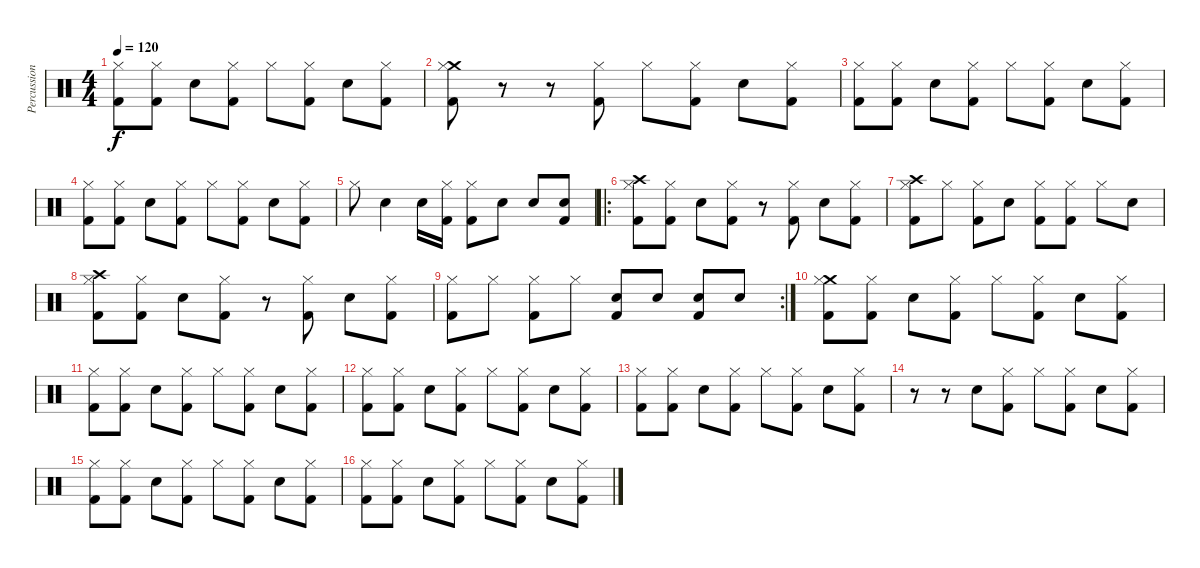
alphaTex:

\track ("Percussion" "Percussion") {instrument percussion}
\staff {score}
\articulation defaults
\ts (4 4)
\tempo 120
\clef neutral
\ks c
("Hi-Hat (closed)" "Kick (hit) 2").8{dy f} ("Hi-Hat (closed)" "Kick (hit) 2").8 "Electric Snare (hit)".8 ("Hi-Hat (closed)" "Kick (hit) 2").8 "Hi-Hat (closed)".8 ("Hi-Hat (closed)" "Kick (hit) 2").8 "Electric Snare (hit)".8 ("Hi-Hat (closed)" "Kick (hit) 2").8 |
("Crash medium (hit)" "Hi-Hat (closed)" "Kick (hit) 2").8 r.8 r.8 ("Hi-Hat (closed)" "Kick (hit) 2").8 "Hi-Hat (closed)".8 ("Hi-Hat (closed)" "Kick (hit) 2").8 "Electric Snare (hit)".8 ("Hi-Hat (closed)" "Kick (hit) 2").8 |
("Hi-Hat (closed)" "Kick (hit) 2").8 ("Hi-Hat (closed)" "Kick (hit) 2").8 "Electric Snare (hit)".8 ("Hi-Hat (closed)" "Kick (hit) 2").8 "Hi-Hat (closed)".8 ("Hi-Hat (closed)" "Kick (hit) 2").8 "Electric Snare (hit)".8 ("Hi-Hat (closed)" "Kick (hit) 2").8 |
("Hi-Hat (closed)" "Kick (hit) 2").8 ("Hi-Hat (closed)" "Kick (hit) 2").8 "Electric Snare (hit)".8 ("Hi-Hat (closed)" "Kick (hit) 2").8 "Hi-Hat (closed)".8 ("Hi-Hat (closed)" "Kick (hit) 2").8 "Electric Snare (hit)".8 ("Hi-Hat (closed)" "Kick (hit) 2").8 |
"Hi-Hat (closed)".8 "Electric Snare (hit)".4 "Electric Snare (hit)".16 ("Hi-Hat (closed)" "Kick (hit) 2").16 ("Hi-Hat (closed)" "Kick (hit) 2").8 "Electric Snare (hit)".8 "Electric Snare (hit)".8 ("Electric Snare (hit)" "Kick (hit) 2").8 |
\ro
("Crash high (hit)" "Hi-Hat (closed)" "Kick (hit) 2").8 ("Hi-Hat (closed)" "Kick (hit) 2").8 "Electric Snare (hit)".8 ("Hi-Hat (closed)" "Kick (hit) 2").8 r.8 ("Hi-Hat (closed)" "Kick (hit) 2").8 "Electric Snare (hit)".8 ("Hi-Hat (closed)" "Kick (hit) 2").8 |
("Crash high (hit)" "Hi-Hat (closed)" "Kick (hit) 2").8 "Hi-Hat (closed)".8 ("Hi-Hat (closed)" "Kick (hit) 2").8 "Electric Snare (hit)".8 ("Hi-Hat (closed)" "Kick (hit) 2").8 ("Hi-Hat (closed)" "Kick (hit) 2").8 "Hi-Hat (closed)".8 "Electric Snare (hit)".8 |
("Crash high (hit)" "Hi-Hat (closed)" "Kick (hit) 2").8 ("Hi-Hat (closed)" "Kick (hit) 2").8 "Electric Snare (hit)".8 ("Hi-Hat (closed)" "Kick (hit) 2").8 r.8 ("Hi-Hat (closed)" "Kick (hit) 2").8 "Electric Snare (hit)".8 ("Hi-Hat (closed)" "Kick (hit) 2").8 |
\rc 2
("Hi-Hat (closed)" "Kick (hit) 2").8 "Hi-Hat (closed)".8 ("Hi-Hat (closed)" "Kick (hit) 2").8 "Hi-Hat (closed)".8 ("Electric Snare (hit)" "Kick (hit) 2").8 "Electric Snare (hit)".8 ("Electric Snare (hit)" "Kick (hit) 2").8 "Electric Snare (hit)".8 |
("Crash medium (hit)" "Hi-Hat (closed)" "Kick (hit) 2").8 ("Hi-Hat (closed)" "Kick (hit) 2").8 "Electric Snare (hit)".8 ("Hi-Hat (closed)" "Kick (hit) 2").8 "Hi-Hat (closed)".8 ("Hi-Hat (closed)" "Kick (hit) 2").8 "Electric Snare (hit)".8 ("Hi-Hat (closed)" "Kick (hit) 2").8 |
("Hi-Hat (closed)" "Kick (hit) 2").8 ("Hi-Hat (closed)" "Kick (hit) 2").8 "Electric Snare (hit)".8 ("Hi-Hat (closed)" "Kick (hit) 2").8 "Hi-Hat (closed)".8 ("Hi-Hat (closed)" "Kick (hit) 2").8 "Electric Snare (hit)".8 ("Hi-Hat (closed)" "Kick (hit) 2").8 |
("Hi-Hat (closed)" "Kick (hit) 2").8 ("Hi-Hat (closed)" "Kick (hit) 2").8 "Electric Snare (hit)".8 ("Hi-Hat (closed)" "Kick (hit) 2").8 "Hi-Hat (closed)".8 ("Hi-Hat (closed)" "Kick (hit) 2").8 "Electric Snare (hit)".8 ("Hi-Hat (closed)" "Kick (hit) 2").8 |
("Hi-Hat (closed)" "Kick (hit) 2").8 ("Hi-Hat (closed)" "Kick (hit) 2").8 "Electric Snare (hit)".8 ("Hi-Hat (closed)" "Kick (hit) 2").8 "Hi-Hat (closed)".8 ("Hi-Hat (closed)" "Kick (hit) 2").8 "Electric Snare (hit)".8 ("Hi-Hat (closed)" "Kick (hit) 2").8 |
r.8 r.8 "Electric Snare (hit)".8 ("Hi-Hat (closed)" "Kick (hit) 2").8 "Hi-Hat (closed)".8 ("Hi-Hat (closed)" "Kick (hit) 2").8 "Electric Snare (hit)".8 ("Hi-Hat (closed)" "Kick (hit) 2").8 |
("Hi-Hat (closed)" "Kick (hit) 2").8 ("Hi-Hat (closed)" "Kick (hit) 2").8 "Electric Snare (hit)".8 ("Hi-Hat (closed)" "Kick (hit) 2").8 "Hi-Hat (closed)".8 ("Hi-Hat (closed)" "Kick (hit) 2").8 "Electric Snare (hit)".8 ("Hi-Hat (closed)" "Kick (hit) 2").8 |
("Hi-Hat (closed)" "Kick (hit) 2").8 ("Hi-Hat (closed)" "Kick (hit) 2").8 "Electric Snare (hit)".8 ("Hi-Hat (closed)" "Kick (hit) 2").8 "Hi-Hat (closed)".8 ("Hi-Hat (closed)" "Kick (hit) 2").8 "Electric Snare (hit)".8 ("Hi-Hat (closed)" "Kick (hit) 2").8
